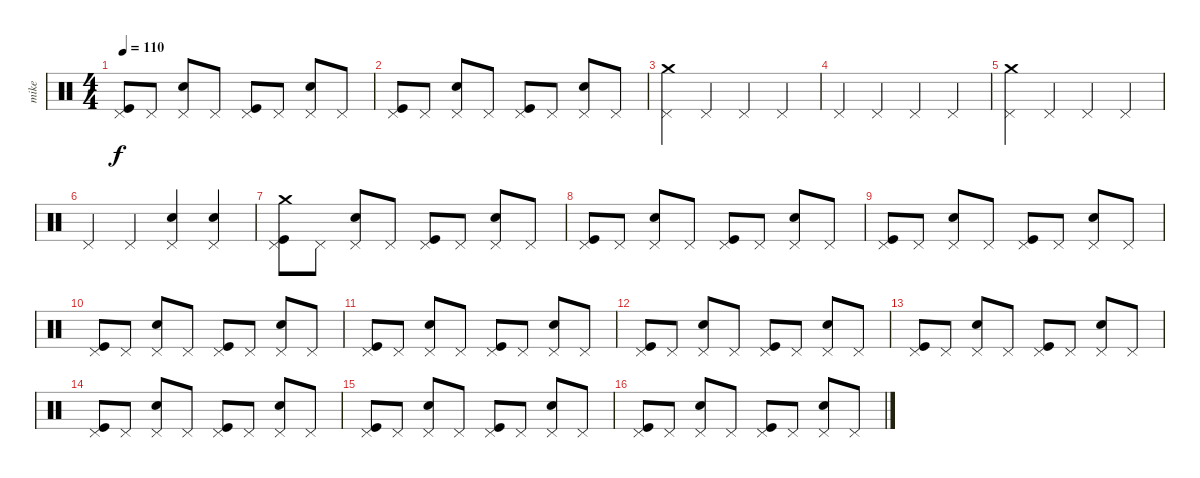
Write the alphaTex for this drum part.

\track ("mike" "mike") {instrument percussion}
\staff {score}
\articulation defaults
\ts (4 4)
\tempo 110
\clef neutral
\ks c
("Pedal Hi-Hat (hit)" "Kick (hit)").8{dy f} "Pedal Hi-Hat (hit)".8 ("Pedal Hi-Hat (hit)" "Electric Snare (hit)").8 "Pedal Hi-Hat (hit)".8 ("Pedal Hi-Hat (hit)" "Kick (hit)").8 "Pedal Hi-Hat (hit)".8 ("Pedal Hi-Hat (hit)" "Electric Snare (hit)").8 "Pedal Hi-Hat (hit)".8 |
("Pedal Hi-Hat (hit)" "Kick (hit)").8 "Pedal Hi-Hat (hit)".8 ("Pedal Hi-Hat (hit)" "Electric Snare (hit)").8 "Pedal Hi-Hat (hit)".8 ("Pedal Hi-Hat (hit)" "Kick (hit)").8 "Pedal Hi-Hat (hit)".8 ("Pedal Hi-Hat (hit)" "Electric Snare (hit)").8 "Pedal Hi-Hat (hit)".8 |
("Pedal Hi-Hat (hit)" "Crash medium (hit)").4 "Pedal Hi-Hat (hit)".4 "Pedal Hi-Hat (hit)".4 "Pedal Hi-Hat (hit)".4 |
"Pedal Hi-Hat (hit)".4 "Pedal Hi-Hat (hit)".4 "Pedal Hi-Hat (hit)".4 "Pedal Hi-Hat (hit)".4 |
("Pedal Hi-Hat (hit)" "Crash medium (hit)").4 "Pedal Hi-Hat (hit)".4 "Pedal Hi-Hat (hit)".4 "Pedal Hi-Hat (hit)".4 |
"Pedal Hi-Hat (hit)".4 "Pedal Hi-Hat (hit)".4 ("Pedal Hi-Hat (hit)" "Electric Snare (hit)").4 ("Pedal Hi-Hat (hit)" "Electric Snare (hit)").4 |
("Pedal Hi-Hat (hit)" "Kick (hit)" "Crash medium (hit)").8 "Pedal Hi-Hat (hit)".8 ("Pedal Hi-Hat (hit)" "Electric Snare (hit)").8 "Pedal Hi-Hat (hit)".8 ("Pedal Hi-Hat (hit)" "Kick (hit)").8 "Pedal Hi-Hat (hit)".8 ("Pedal Hi-Hat (hit)" "Electric Snare (hit)").8 "Pedal Hi-Hat (hit)".8 |
("Pedal Hi-Hat (hit)" "Kick (hit)").8 "Pedal Hi-Hat (hit)".8 ("Pedal Hi-Hat (hit)" "Electric Snare (hit)").8 "Pedal Hi-Hat (hit)".8 ("Pedal Hi-Hat (hit)" "Kick (hit)").8 "Pedal Hi-Hat (hit)".8 ("Pedal Hi-Hat (hit)" "Electric Snare (hit)").8 "Pedal Hi-Hat (hit)".8 |
("Pedal Hi-Hat (hit)" "Kick (hit)").8 "Pedal Hi-Hat (hit)".8 ("Pedal Hi-Hat (hit)" "Electric Snare (hit)").8 "Pedal Hi-Hat (hit)".8 ("Pedal Hi-Hat (hit)" "Kick (hit)").8 "Pedal Hi-Hat (hit)".8 ("Pedal Hi-Hat (hit)" "Electric Snare (hit)").8 "Pedal Hi-Hat (hit)".8 |
("Pedal Hi-Hat (hit)" "Kick (hit)").8 "Pedal Hi-Hat (hit)".8 ("Pedal Hi-Hat (hit)" "Electric Snare (hit)").8 "Pedal Hi-Hat (hit)".8 ("Pedal Hi-Hat (hit)" "Kick (hit)").8 "Pedal Hi-Hat (hit)".8 ("Pedal Hi-Hat (hit)" "Electric Snare (hit)").8 "Pedal Hi-Hat (hit)".8 |
("Pedal Hi-Hat (hit)" "Kick (hit)").8 "Pedal Hi-Hat (hit)".8 ("Pedal Hi-Hat (hit)" "Electric Snare (hit)").8 "Pedal Hi-Hat (hit)".8 ("Pedal Hi-Hat (hit)" "Kick (hit)").8 "Pedal Hi-Hat (hit)".8 ("Pedal Hi-Hat (hit)" "Electric Snare (hit)").8 "Pedal Hi-Hat (hit)".8 |
("Pedal Hi-Hat (hit)" "Kick (hit)").8 "Pedal Hi-Hat (hit)".8 ("Pedal Hi-Hat (hit)" "Electric Snare (hit)").8 "Pedal Hi-Hat (hit)".8 ("Pedal Hi-Hat (hit)" "Kick (hit)").8 "Pedal Hi-Hat (hit)".8 ("Pedal Hi-Hat (hit)" "Electric Snare (hit)").8 "Pedal Hi-Hat (hit)".8 |
("Pedal Hi-Hat (hit)" "Kick (hit)").8 "Pedal Hi-Hat (hit)".8 ("Pedal Hi-Hat (hit)" "Electric Snare (hit)").8 "Pedal Hi-Hat (hit)".8 ("Pedal Hi-Hat (hit)" "Kick (hit)").8 "Pedal Hi-Hat (hit)".8 ("Pedal Hi-Hat (hit)" "Electric Snare (hit)").8 "Pedal Hi-Hat (hit)".8 |
("Pedal Hi-Hat (hit)" "Kick (hit)").8 "Pedal Hi-Hat (hit)".8 ("Pedal Hi-Hat (hit)" "Electric Snare (hit)").8 "Pedal Hi-Hat (hit)".8 ("Pedal Hi-Hat (hit)" "Kick (hit)").8 "Pedal Hi-Hat (hit)".8 ("Pedal Hi-Hat (hit)" "Electric Snare (hit)").8 "Pedal Hi-Hat (hit)".8 |
("Pedal Hi-Hat (hit)" "Kick (hit)").8 "Pedal Hi-Hat (hit)".8 ("Pedal Hi-Hat (hit)" "Electric Snare (hit)").8 "Pedal Hi-Hat (hit)".8 ("Pedal Hi-Hat (hit)" "Kick (hit)").8 "Pedal Hi-Hat (hit)".8 ("Pedal Hi-Hat (hit)" "Electric Snare (hit)").8 "Pedal Hi-Hat (hit)".8 |
("Pedal Hi-Hat (hit)" "Kick (hit)").8 "Pedal Hi-Hat (hit)".8 ("Pedal Hi-Hat (hit)" "Electric Snare (hit)").8 "Pedal Hi-Hat (hit)".8 ("Pedal Hi-Hat (hit)" "Kick (hit)").8 "Pedal Hi-Hat (hit)".8 ("Pedal Hi-Hat (hit)" "Electric Snare (hit)").8 "Pedal Hi-Hat (hit)".8
